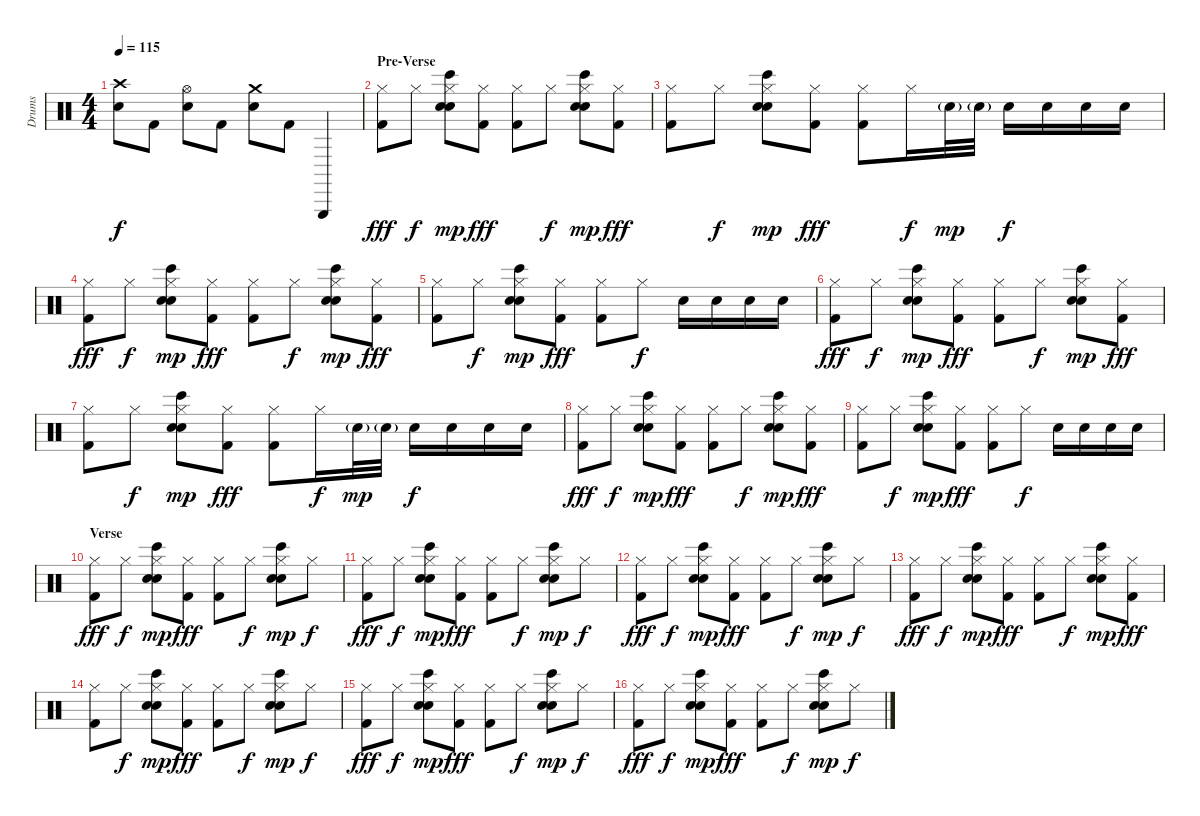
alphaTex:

\track ("Drums" "Drums") {instrument percussion}
\staff {score}
\articulation defaults
\ts (4 4)
\tempo 115
\clef neutral
\ks c
("Crash high (hit)" "Electric Snare (hit)").8{dy f} "Kick (hit) 2".8 ("Hi-Hat (open)" "Electric Snare (hit)").8 "Kick (hit) 2".8 ("Crash medium (hit)" "Electric Snare (hit)").8 "Kick (hit) 2".8 "Triangle (hit)".4 |
\section ("" "Pre-Verse")
("Hi-Hat (closed)" "Kick (hit) 2").8{dy fff} "Hi-Hat (closed)".8{dy f} ("Hi-Hat (closed)" "Bongo High (hit)" "Electric Snare (hit)" "Hand Clap (hit)").8{dy mp} ("Hi-Hat (closed)" "Kick (hit) 2").8{dy fff} ("Hi-Hat (closed)" "Kick (hit) 2").8 "Hi-Hat (closed)".8{dy f} ("Hi-Hat (closed)" "Bongo High (hit)" "Electric Snare (hit)" "Hand Clap (hit)").8{dy mp} ("Hi-Hat (closed)" "Kick (hit) 2").8{dy fff} |
("Hi-Hat (closed)" "Kick (hit) 2").8 "Hi-Hat (closed)".8{dy f} ("Hi-Hat (closed)" "Bongo High (hit)" "Electric Snare (hit)" "Hand Clap (hit)").8{dy mp} ("Hi-Hat (closed)" "Kick (hit) 2").8{dy fff} ("Hi-Hat (closed)" "Kick (hit) 2").8 "Hi-Hat (closed)".16{dy f} "Electric Snare (hit)"{g}.32{dy mp} "Electric Snare (hit)"{g}.32 "Electric Snare (hit)".16{dy f} "Electric Snare (hit)".16 "Electric Snare (hit)".16 "Electric Snare (hit)".16 |
("Hi-Hat (closed)" "Kick (hit) 2").8{dy fff} "Hi-Hat (closed)".8{dy f} ("Hi-Hat (closed)" "Bongo High (hit)" "Electric Snare (hit)" "Hand Clap (hit)").8{dy mp} ("Hi-Hat (closed)" "Kick (hit) 2").8{dy fff} ("Hi-Hat (closed)" "Kick (hit) 2").8 "Hi-Hat (closed)".8{dy f} ("Hi-Hat (closed)" "Bongo High (hit)" "Electric Snare (hit)" "Hand Clap (hit)").8{dy mp} ("Hi-Hat (closed)" "Kick (hit) 2").8{dy fff} |
("Hi-Hat (closed)" "Kick (hit) 2").8 "Hi-Hat (closed)".8{dy f} ("Hi-Hat (closed)" "Bongo High (hit)" "Electric Snare (hit)" "Hand Clap (hit)").8{dy mp} ("Hi-Hat (closed)" "Kick (hit) 2").8{dy fff} ("Hi-Hat (closed)" "Kick (hit) 2").8 "Hi-Hat (closed)".8{dy f} "Electric Snare (hit)".16 "Electric Snare (hit)".16 "Electric Snare (hit)".16 "Electric Snare (hit)".16 |
("Hi-Hat (closed)" "Kick (hit) 2").8{dy fff} "Hi-Hat (closed)".8{dy f} ("Hi-Hat (closed)" "Bongo High (hit)" "Electric Snare (hit)" "Hand Clap (hit)").8{dy mp} ("Hi-Hat (closed)" "Kick (hit) 2").8{dy fff} ("Hi-Hat (closed)" "Kick (hit) 2").8 "Hi-Hat (closed)".8{dy f} ("Hi-Hat (closed)" "Bongo High (hit)" "Electric Snare (hit)" "Hand Clap (hit)").8{dy mp} ("Hi-Hat (closed)" "Kick (hit) 2").8{dy fff} |
("Hi-Hat (closed)" "Kick (hit) 2").8 "Hi-Hat (closed)".8{dy f} ("Hi-Hat (closed)" "Bongo High (hit)" "Electric Snare (hit)" "Hand Clap (hit)").8{dy mp} ("Hi-Hat (closed)" "Kick (hit) 2").8{dy fff} ("Hi-Hat (closed)" "Kick (hit) 2").8 "Hi-Hat (closed)".16{dy f} "Electric Snare (hit)"{g}.32{dy mp} "Electric Snare (hit)"{g}.32 "Electric Snare (hit)".16{dy f} "Electric Snare (hit)".16 "Electric Snare (hit)".16 "Electric Snare (hit)".16 |
("Hi-Hat (closed)" "Kick (hit) 2").8{dy fff} "Hi-Hat (closed)".8{dy f} ("Hi-Hat (closed)" "Bongo High (hit)" "Electric Snare (hit)" "Hand Clap (hit)").8{dy mp} ("Hi-Hat (closed)" "Kick (hit) 2").8{dy fff} ("Hi-Hat (closed)" "Kick (hit) 2").8 "Hi-Hat (closed)".8{dy f} ("Hi-Hat (closed)" "Bongo High (hit)" "Electric Snare (hit)" "Hand Clap (hit)").8{dy mp} ("Hi-Hat (closed)" "Kick (hit) 2").8{dy fff} |
("Hi-Hat (closed)" "Kick (hit) 2").8 "Hi-Hat (closed)".8{dy f} ("Hi-Hat (closed)" "Bongo High (hit)" "Electric Snare (hit)" "Hand Clap (hit)").8{dy mp} ("Hi-Hat (closed)" "Kick (hit) 2").8{dy fff} ("Hi-Hat (closed)" "Kick (hit) 2").8 "Hi-Hat (closed)".8{dy f} "Electric Snare (hit)".16 "Electric Snare (hit)".16 "Electric Snare (hit)".16 "Electric Snare (hit)".16 |
\section ("" "Verse")
("Hi-Hat (closed)" "Kick (hit) 2").8{dy fff} "Hi-Hat (closed)".8{dy f} ("Hi-Hat (closed)" "Bongo High (hit)" "Electric Snare (hit)" "Hand Clap (hit)").8{dy mp} ("Hi-Hat (closed)" "Kick (hit) 2").8{dy fff} ("Hi-Hat (closed)" "Kick (hit) 2").8 "Hi-Hat (closed)".8{dy f} ("Hi-Hat (closed)" "Bongo High (hit)" "Electric Snare (hit)" "Hand Clap (hit)").8{dy mp} "Hi-Hat (closed)".8{dy f} |
("Hi-Hat (closed)" "Kick (hit) 2").8{dy fff} "Hi-Hat (closed)".8{dy f} ("Hi-Hat (closed)" "Bongo High (hit)" "Electric Snare (hit)" "Hand Clap (hit)").8{dy mp} ("Hi-Hat (closed)" "Kick (hit) 2").8{dy fff} ("Hi-Hat (closed)" "Kick (hit) 2").8 "Hi-Hat (closed)".8{dy f} ("Hi-Hat (closed)" "Bongo High (hit)" "Electric Snare (hit)" "Hand Clap (hit)").8{dy mp} "Hi-Hat (closed)".8{dy f} |
("Hi-Hat (closed)" "Kick (hit) 2").8{dy fff} "Hi-Hat (closed)".8{dy f} ("Hi-Hat (closed)" "Bongo High (hit)" "Electric Snare (hit)" "Hand Clap (hit)").8{dy mp} ("Hi-Hat (closed)" "Kick (hit) 2").8{dy fff} ("Hi-Hat (closed)" "Kick (hit) 2").8 "Hi-Hat (closed)".8{dy f} ("Hi-Hat (closed)" "Bongo High (hit)" "Electric Snare (hit)" "Hand Clap (hit)").8{dy mp} "Hi-Hat (closed)".8{dy f} |
("Hi-Hat (closed)" "Kick (hit) 2").8{dy fff} "Hi-Hat (closed)".8{dy f} ("Hi-Hat (closed)" "Bongo High (hit)" "Electric Snare (hit)" "Hand Clap (hit)").8{dy mp} ("Hi-Hat (closed)" "Kick (hit) 2").8{dy fff} ("Hi-Hat (closed)" "Kick (hit) 2").8 "Hi-Hat (closed)".8{dy f} ("Hi-Hat (closed)" "Bongo High (hit)" "Electric Snare (hit)" "Hand Clap (hit)").8{dy mp} ("Hi-Hat (closed)" "Kick (hit) 2").8{dy fff} |
("Hi-Hat (closed)" "Kick (hit) 2").8 "Hi-Hat (closed)".8{dy f} ("Hi-Hat (closed)" "Bongo High (hit)" "Electric Snare (hit)" "Hand Clap (hit)").8{dy mp} ("Hi-Hat (closed)" "Kick (hit) 2").8{dy fff} ("Hi-Hat (closed)" "Kick (hit) 2").8 "Hi-Hat (closed)".8{dy f} ("Hi-Hat (closed)" "Bongo High (hit)" "Electric Snare (hit)" "Hand Clap (hit)").8{dy mp} "Hi-Hat (closed)".8{dy f} |
("Hi-Hat (closed)" "Kick (hit) 2").8{dy fff} "Hi-Hat (closed)".8{dy f} ("Hi-Hat (closed)" "Bongo High (hit)" "Electric Snare (hit)" "Hand Clap (hit)").8{dy mp} ("Hi-Hat (closed)" "Kick (hit) 2").8{dy fff} ("Hi-Hat (closed)" "Kick (hit) 2").8 "Hi-Hat (closed)".8{dy f} ("Hi-Hat (closed)" "Bongo High (hit)" "Electric Snare (hit)" "Hand Clap (hit)").8{dy mp} "Hi-Hat (closed)".8{dy f} |
("Hi-Hat (closed)" "Kick (hit) 2").8{dy fff} "Hi-Hat (closed)".8{dy f} ("Hi-Hat (closed)" "Bongo High (hit)" "Electric Snare (hit)" "Hand Clap (hit)").8{dy mp} ("Hi-Hat (closed)" "Kick (hit) 2").8{dy fff} ("Hi-Hat (closed)" "Kick (hit) 2").8 "Hi-Hat (closed)".8{dy f} ("Hi-Hat (closed)" "Bongo High (hit)" "Electric Snare (hit)" "Hand Clap (hit)").8{dy mp} "Hi-Hat (closed)".8{dy f}
